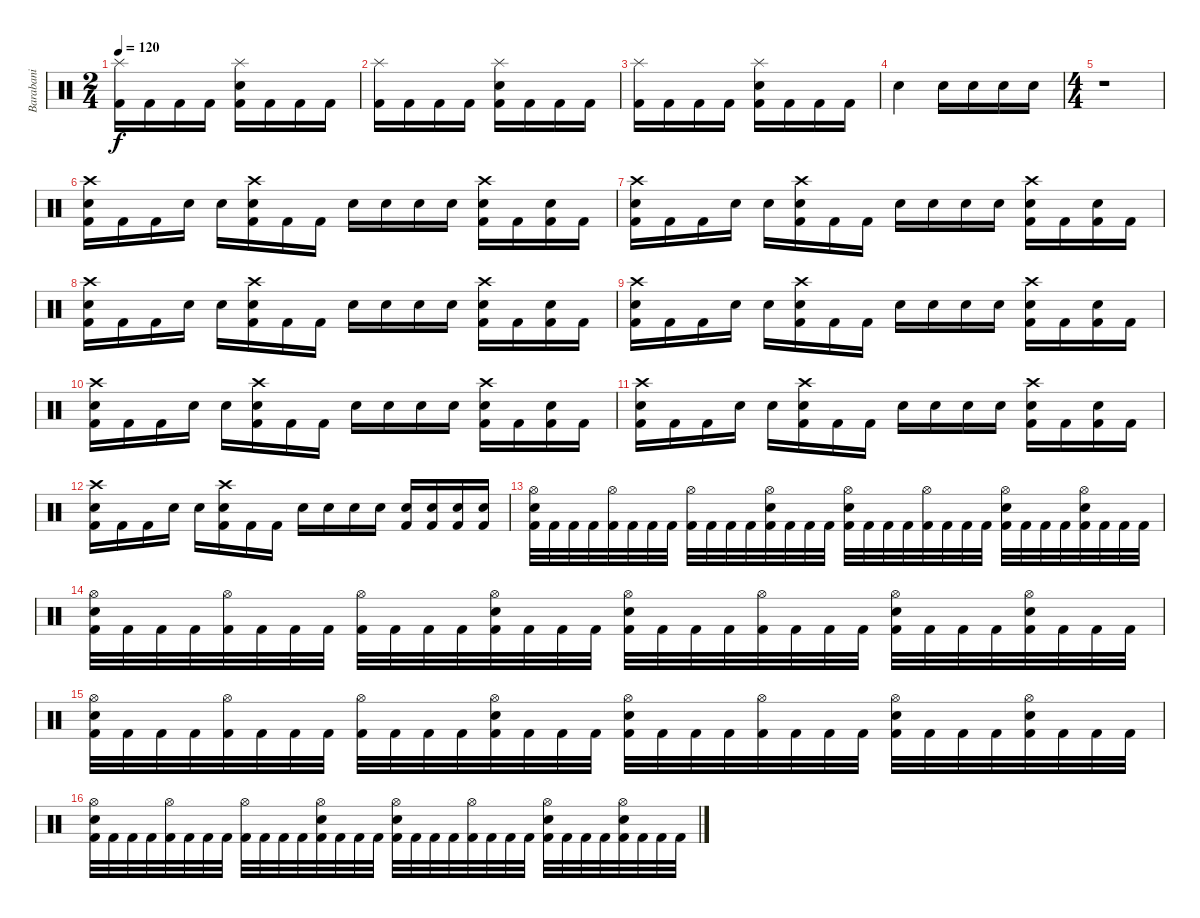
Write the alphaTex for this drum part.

\track ("Barabani" "Barabani") {instrument percussion}
\staff {score}
\articulation defaults
\ts (2 4)
\tempo 120
\clef neutral
\ks c
("Splash (hit)" "Kick (hit) 2").16{dy f} "Kick (hit) 2".16 "Kick (hit) 2".16 "Kick (hit) 2".16 ("Splash (hit)" "Electric Snare (hit)" "Kick (hit) 2").16 "Kick (hit) 2".16 "Kick (hit) 2".16 "Kick (hit) 2".16 |
("Splash (hit)" "Kick (hit) 2").16 "Kick (hit) 2".16 "Kick (hit) 2".16 "Kick (hit) 2".16 ("Splash (hit)" "Electric Snare (hit)" "Kick (hit) 2").16 "Kick (hit) 2".16 "Kick (hit) 2".16 "Kick (hit) 2".16 |
("Splash (hit)" "Kick (hit) 2").16 "Kick (hit) 2".16 "Kick (hit) 2".16 "Kick (hit) 2".16 ("Splash (hit)" "Electric Snare (hit)" "Kick (hit) 2").16 "Kick (hit) 2".16 "Kick (hit) 2".16 "Kick (hit) 2".16 |
"Electric Snare (hit)".4 "Snare (hit)".16 "Snare (hit)".16 "Electric Snare (hit)".16 "Electric Snare (hit)".16 |
\ts (4 4)
r.1 |
("Crash high (hit)" "Electric Snare (hit)" "Kick (hit) 2").16 "Kick (hit) 2".16 "Kick (hit) 2".16 "Snare (hit)".16 "Snare (hit)".16 ("Crash high (hit)" "Electric Snare (hit)" "Kick (hit) 2").16 "Kick (hit) 2".16 "Kick (hit) 2".16 "Snare (hit)".16 "Snare (hit)".16 "Snare (hit)".16 "Snare (hit)".16 ("Crash high (hit)" "Electric Snare (hit)" "Kick (hit) 2").16 "Kick (hit) 2".16 ("Electric Snare (hit)" "Kick (hit) 2").16 "Kick (hit) 2".16 |
("Crash high (hit)" "Electric Snare (hit)" "Kick (hit) 2").16 "Kick (hit) 2".16 "Kick (hit) 2".16 "Snare (hit)".16 "Snare (hit)".16 ("Crash high (hit)" "Electric Snare (hit)" "Kick (hit) 2").16 "Kick (hit) 2".16 "Kick (hit) 2".16 "Snare (hit)".16 "Snare (hit)".16 "Snare (hit)".16 "Snare (hit)".16 ("Crash high (hit)" "Electric Snare (hit)" "Kick (hit) 2").16 "Kick (hit) 2".16 ("Electric Snare (hit)" "Kick (hit) 2").16 "Kick (hit) 2".16 |
("Crash high (hit)" "Electric Snare (hit)" "Kick (hit) 2").16 "Kick (hit) 2".16 "Kick (hit) 2".16 "Snare (hit)".16 "Snare (hit)".16 ("Crash high (hit)" "Electric Snare (hit)" "Kick (hit) 2").16 "Kick (hit) 2".16 "Kick (hit) 2".16 "Snare (hit)".16 "Snare (hit)".16 "Snare (hit)".16 "Snare (hit)".16 ("Crash high (hit)" "Electric Snare (hit)" "Kick (hit) 2").16 "Kick (hit) 2".16 ("Electric Snare (hit)" "Kick (hit) 2").16 "Kick (hit) 2".16 |
("Crash high (hit)" "Electric Snare (hit)" "Kick (hit) 2").16 "Kick (hit) 2".16 "Kick (hit) 2".16 "Snare (hit)".16 "Snare (hit)".16 ("Crash high (hit)" "Electric Snare (hit)" "Kick (hit) 2").16 "Kick (hit) 2".16 "Kick (hit) 2".16 "Snare (hit)".16 "Snare (hit)".16 "Snare (hit)".16 "Snare (hit)".16 ("Crash high (hit)" "Electric Snare (hit)" "Kick (hit) 2").16 "Kick (hit) 2".16 ("Electric Snare (hit)" "Kick (hit) 2").16 "Kick (hit) 2".16 |
("Crash high (hit)" "Electric Snare (hit)" "Kick (hit) 2").16 "Kick (hit) 2".16 "Kick (hit) 2".16 "Snare (hit)".16 "Snare (hit)".16 ("Crash high (hit)" "Electric Snare (hit)" "Kick (hit) 2").16 "Kick (hit) 2".16 "Kick (hit) 2".16 "Snare (hit)".16 "Snare (hit)".16 "Snare (hit)".16 "Snare (hit)".16 ("Crash high (hit)" "Electric Snare (hit)" "Kick (hit) 2").16 "Kick (hit) 2".16 ("Electric Snare (hit)" "Kick (hit) 2").16 "Kick (hit) 2".16 |
("Crash high (hit)" "Electric Snare (hit)" "Kick (hit) 2").16 "Kick (hit) 2".16 "Kick (hit) 2".16 "Snare (hit)".16 "Snare (hit)".16 ("Crash high (hit)" "Electric Snare (hit)" "Kick (hit) 2").16 "Kick (hit) 2".16 "Kick (hit) 2".16 "Snare (hit)".16 "Snare (hit)".16 "Snare (hit)".16 "Snare (hit)".16 ("Crash high (hit)" "Electric Snare (hit)" "Kick (hit) 2").16 "Kick (hit) 2".16 ("Electric Snare (hit)" "Kick (hit) 2").16 "Kick (hit) 2".16 |
("Crash high (hit)" "Electric Snare (hit)" "Kick (hit) 2").16 "Kick (hit) 2".16 "Kick (hit) 2".16 "Snare (hit)".16 "Snare (hit)".16 ("Crash high (hit)" "Electric Snare (hit)" "Kick (hit) 2").16 "Kick (hit) 2".16 "Kick (hit) 2".16 "Snare (hit)".16 "Snare (hit)".16 "Snare (hit)".16 "Snare (hit)".16 ("Electric Snare (hit)" "Kick (hit) 2").16 ("Electric Snare (hit)" "Kick (hit) 2").16 ("Electric Snare (hit)" "Kick (hit) 2").16 ("Electric Snare (hit)" "Kick (hit) 2").16 |
("Hi-Hat (open)" "Electric Snare (hit)" "Kick (hit) 2").32 "Kick (hit) 2".32 "Kick (hit) 2".32 "Kick (hit) 2".32 ("Hi-Hat (open)" "Kick (hit) 2").32 "Kick (hit) 2".32 "Kick (hit) 2".32 "Kick (hit) 2".32 ("Hi-Hat (open)" "Kick (hit) 2").32 "Kick (hit) 2".32 "Kick (hit) 2".32 "Kick (hit) 2".32 ("Hi-Hat (open)" "Electric Snare (hit)" "Kick (hit) 2").32 "Kick (hit) 2".32 "Kick (hit) 2".32 "Kick (hit) 2".32 ("Hi-Hat (open)" "Electric Snare (hit)" "Kick (hit) 2").32 "Kick (hit) 2".32 "Kick (hit) 2".32 "Kick (hit) 2".32 ("Hi-Hat (open)" "Kick (hit) 2").32 "Kick (hit) 2".32 "Kick (hit) 2".32 "Kick (hit) 2".32 ("Hi-Hat (open)" "Electric Snare (hit)" "Kick (hit) 2").32 "Kick (hit) 2".32 "Kick (hit) 2".32 "Kick (hit) 2".32 ("Hi-Hat (open)" "Electric Snare (hit)" "Kick (hit) 2").32 "Kick (hit) 2".32 "Kick (hit) 2".32 "Kick (hit) 2".32 |
("Hi-Hat (open)" "Electric Snare (hit)" "Kick (hit) 2").32 "Kick (hit) 2".32 "Kick (hit) 2".32 "Kick (hit) 2".32 ("Hi-Hat (open)" "Kick (hit) 2").32 "Kick (hit) 2".32 "Kick (hit) 2".32 "Kick (hit) 2".32 ("Hi-Hat (open)" "Kick (hit) 2").32 "Kick (hit) 2".32 "Kick (hit) 2".32 "Kick (hit) 2".32 ("Hi-Hat (open)" "Electric Snare (hit)" "Kick (hit) 2").32 "Kick (hit) 2".32 "Kick (hit) 2".32 "Kick (hit) 2".32 ("Hi-Hat (open)" "Electric Snare (hit)" "Kick (hit) 2").32 "Kick (hit) 2".32 "Kick (hit) 2".32 "Kick (hit) 2".32 ("Hi-Hat (open)" "Kick (hit) 2").32 "Kick (hit) 2".32 "Kick (hit) 2".32 "Kick (hit) 2".32 ("Hi-Hat (open)" "Electric Snare (hit)" "Kick (hit) 2").32 "Kick (hit) 2".32 "Kick (hit) 2".32 "Kick (hit) 2".32 ("Hi-Hat (open)" "Electric Snare (hit)" "Kick (hit) 2").32 "Kick (hit) 2".32 "Kick (hit) 2".32 "Kick (hit) 2".32 |
("Hi-Hat (open)" "Electric Snare (hit)" "Kick (hit) 2").32 "Kick (hit) 2".32 "Kick (hit) 2".32 "Kick (hit) 2".32 ("Hi-Hat (open)" "Kick (hit) 2").32 "Kick (hit) 2".32 "Kick (hit) 2".32 "Kick (hit) 2".32 ("Hi-Hat (open)" "Kick (hit) 2").32 "Kick (hit) 2".32 "Kick (hit) 2".32 "Kick (hit) 2".32 ("Hi-Hat (open)" "Electric Snare (hit)" "Kick (hit) 2").32 "Kick (hit) 2".32 "Kick (hit) 2".32 "Kick (hit) 2".32 ("Hi-Hat (open)" "Electric Snare (hit)" "Kick (hit) 2").32 "Kick (hit) 2".32 "Kick (hit) 2".32 "Kick (hit) 2".32 ("Hi-Hat (open)" "Kick (hit) 2").32 "Kick (hit) 2".32 "Kick (hit) 2".32 "Kick (hit) 2".32 ("Hi-Hat (open)" "Electric Snare (hit)" "Kick (hit) 2").32 "Kick (hit) 2".32 "Kick (hit) 2".32 "Kick (hit) 2".32 ("Hi-Hat (open)" "Electric Snare (hit)" "Kick (hit) 2").32 "Kick (hit) 2".32 "Kick (hit) 2".32 "Kick (hit) 2".32 |
("Hi-Hat (open)" "Electric Snare (hit)" "Kick (hit) 2").32 "Kick (hit) 2".32 "Kick (hit) 2".32 "Kick (hit) 2".32 ("Hi-Hat (open)" "Kick (hit) 2").32 "Kick (hit) 2".32 "Kick (hit) 2".32 "Kick (hit) 2".32 ("Hi-Hat (open)" "Kick (hit) 2").32 "Kick (hit) 2".32 "Kick (hit) 2".32 "Kick (hit) 2".32 ("Hi-Hat (open)" "Electric Snare (hit)" "Kick (hit) 2").32 "Kick (hit) 2".32 "Kick (hit) 2".32 "Kick (hit) 2".32 ("Hi-Hat (open)" "Electric Snare (hit)" "Kick (hit) 2").32 "Kick (hit) 2".32 "Kick (hit) 2".32 "Kick (hit) 2".32 ("Hi-Hat (open)" "Kick (hit) 2").32 "Kick (hit) 2".32 "Kick (hit) 2".32 "Kick (hit) 2".32 ("Hi-Hat (open)" "Electric Snare (hit)" "Kick (hit) 2").32 "Kick (hit) 2".32 "Kick (hit) 2".32 "Kick (hit) 2".32 ("Hi-Hat (open)" "Electric Snare (hit)" "Kick (hit) 2").32 "Kick (hit) 2".32 "Kick (hit) 2".32 "Kick (hit) 2".32
